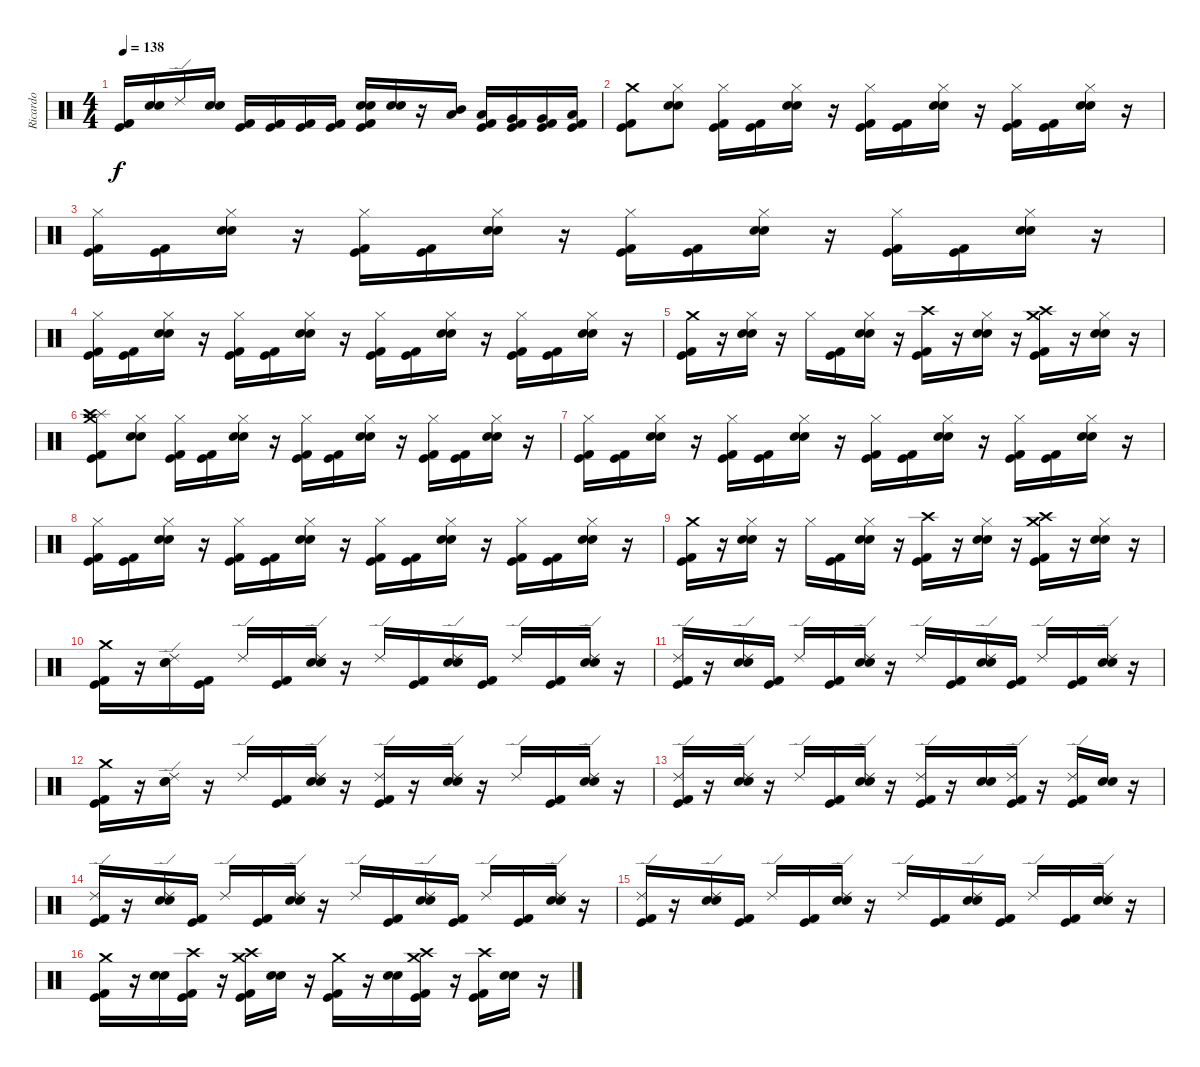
\track ("Ricardo" "Ricardo") {instrument percussion}
\staff {score}
\articulation defaults
\ts (4 4)
\tempo 138
\clef neutral
\ks c
("Kick (hit) 2" "Kick (hit)").16{dy f} ("Electric Snare (hit)" "Snare (hit) 2").16 "Ride (edge) 2".16 ("Snare (hit) 2" "Electric Snare (hit)").16 ("Kick (hit) 2" "Kick (hit)").16 ("Kick (hit) 2" "Kick (hit)").16 ("Kick (hit) 2" "Kick (hit)").16 ("Kick (hit) 2" "Kick (hit)").16 ("Electric Snare (hit)" "Snare (hit) 2" "Kick (hit) 2" "Kick (hit)").16 ("Electric Snare (hit)" "Snare (hit) 2").16 r.16 ("Mid Tom (hit)" "Low Tom (hit)").16 ("Low Tom (hit)" "Kick (hit) 2" "Kick (hit)").16 ("Very Low Tom (hit)" "Kick (hit) 2" "Kick (hit)").16 ("Very Low Tom (hit)" "Kick (hit) 2" "Kick (hit)").16 ("Low Floor Tom (hit)" "Kick (hit) 2" "Kick (hit)").16 |
("Crash medium (hit)" "Kick (hit) 2" "Kick (hit)").8 ("Hi-Hat (closed)" "Electric Snare (hit)" "Snare (hit) 2").8 ("Hi-Hat (closed)" "Kick (hit) 2" "Kick (hit)").16 ("Kick (hit) 2" "Kick (hit)").16 ("Hi-Hat (closed)" "Electric Snare (hit)" "Snare (hit) 2").16 r.16 ("Hi-Hat (closed)" "Kick (hit) 2" "Kick (hit)").16 ("Kick (hit) 2" "Kick (hit)").16 ("Hi-Hat (closed)" "Electric Snare (hit)" "Snare (hit) 2").16 r.16 ("Hi-Hat (closed)" "Kick (hit) 2" "Kick (hit)").16 ("Kick (hit) 2" "Kick (hit)").16 ("Hi-Hat (closed)" "Electric Snare (hit)" "Snare (hit) 2").16 r.16 |
("Hi-Hat (closed)" "Kick (hit) 2" "Kick (hit)").16 ("Kick (hit) 2" "Kick (hit)").16 ("Hi-Hat (closed)" "Electric Snare (hit)" "Snare (hit) 2").16 r.16 ("Hi-Hat (closed)" "Kick (hit) 2" "Kick (hit)").16 ("Kick (hit) 2" "Kick (hit)").16 ("Hi-Hat (closed)" "Electric Snare (hit)" "Snare (hit) 2").16 r.16 ("Hi-Hat (closed)" "Kick (hit) 2" "Kick (hit)").16 ("Kick (hit) 2" "Kick (hit)").16 ("Hi-Hat (closed)" "Electric Snare (hit)" "Snare (hit) 2").16 r.16 ("Hi-Hat (closed)" "Kick (hit) 2" "Kick (hit)").16 ("Kick (hit) 2" "Kick (hit)").16 ("Hi-Hat (closed)" "Electric Snare (hit)" "Snare (hit) 2").16 r.16 |
("Hi-Hat (closed)" "Kick (hit) 2" "Kick (hit)").16 ("Kick (hit) 2" "Kick (hit)").16 ("Hi-Hat (closed)" "Electric Snare (hit)" "Snare (hit) 2").16 r.16 ("Hi-Hat (closed)" "Kick (hit) 2" "Kick (hit)").16 ("Kick (hit) 2" "Kick (hit)").16 ("Hi-Hat (closed)" "Electric Snare (hit)" "Snare (hit) 2").16 r.16 ("Hi-Hat (closed)" "Kick (hit) 2" "Kick (hit)").16 ("Kick (hit) 2" "Kick (hit)").16 ("Hi-Hat (closed)" "Electric Snare (hit)" "Snare (hit) 2").16 r.16 ("Hi-Hat (closed)" "Kick (hit) 2" "Kick (hit)").16 ("Kick (hit) 2" "Kick (hit)").16 ("Hi-Hat (closed)" "Electric Snare (hit)" "Snare (hit) 2").16 r.16 |
("Crash medium (hit)" "Kick (hit) 2" "Kick (hit)").16 r.16 ("Hi-Hat (closed)" "Electric Snare (hit)" "Snare (hit) 2").16 r.16 "Hi-Hat (closed)".16 ("Kick (hit) 2" "Kick (hit)").16 ("Hi-Hat (closed)" "Electric Snare (hit)" "Snare (hit) 2").16 r.16 ("Crash high (hit)" "Kick (hit) 2" "Kick (hit)").16 r.16 ("Hi-Hat (closed)" "Electric Snare (hit)" "Snare (hit) 2").16 r.16 ("Crash medium (hit)" "Crash high (hit)" "Kick (hit) 2" "Kick (hit)").16 r.16 ("Hi-Hat (closed)" "Electric Snare (hit)" "Snare (hit) 2").16 r.16 |
("Splash (hit)" "Crash high (hit)" "Crash medium (hit)" "Kick (hit) 2" "Kick (hit)").8 ("Hi-Hat (closed)" "Electric Snare (hit)" "Snare (hit) 2").8 ("Hi-Hat (closed)" "Kick (hit) 2" "Kick (hit)").16 ("Kick (hit) 2" "Kick (hit)").16 ("Hi-Hat (closed)" "Electric Snare (hit)" "Snare (hit) 2").16 r.16 ("Hi-Hat (closed)" "Kick (hit) 2" "Kick (hit)").16 ("Kick (hit) 2" "Kick (hit)").16 ("Hi-Hat (closed)" "Electric Snare (hit)" "Snare (hit) 2").16 r.16 ("Hi-Hat (closed)" "Kick (hit) 2" "Kick (hit)").16 ("Kick (hit) 2" "Kick (hit)").16 ("Hi-Hat (closed)" "Electric Snare (hit)" "Snare (hit) 2").16 r.16 |
("Hi-Hat (closed)" "Kick (hit) 2" "Kick (hit)").16 ("Kick (hit) 2" "Kick (hit)").16 ("Hi-Hat (closed)" "Electric Snare (hit)" "Snare (hit) 2").16 r.16 ("Hi-Hat (closed)" "Kick (hit) 2" "Kick (hit)").16 ("Kick (hit) 2" "Kick (hit)").16 ("Hi-Hat (closed)" "Electric Snare (hit)" "Snare (hit) 2").16 r.16 ("Hi-Hat (closed)" "Kick (hit) 2" "Kick (hit)").16 ("Kick (hit) 2" "Kick (hit)").16 ("Hi-Hat (closed)" "Electric Snare (hit)" "Snare (hit) 2").16 r.16 ("Hi-Hat (closed)" "Kick (hit) 2" "Kick (hit)").16 ("Kick (hit) 2" "Kick (hit)").16 ("Hi-Hat (closed)" "Electric Snare (hit)" "Snare (hit) 2").16 r.16 |
("Hi-Hat (closed)" "Kick (hit) 2" "Kick (hit)").16 ("Kick (hit) 2" "Kick (hit)").16 ("Hi-Hat (closed)" "Electric Snare (hit)" "Snare (hit) 2").16 r.16 ("Hi-Hat (closed)" "Kick (hit) 2" "Kick (hit)").16 ("Kick (hit) 2" "Kick (hit)").16 ("Hi-Hat (closed)" "Electric Snare (hit)" "Snare (hit) 2").16 r.16 ("Hi-Hat (closed)" "Kick (hit) 2" "Kick (hit)").16 ("Kick (hit) 2" "Kick (hit)").16 ("Hi-Hat (closed)" "Electric Snare (hit)" "Snare (hit) 2").16 r.16 ("Hi-Hat (closed)" "Kick (hit) 2" "Kick (hit)").16 ("Kick (hit) 2" "Kick (hit)").16 ("Hi-Hat (closed)" "Electric Snare (hit)" "Snare (hit) 2").16 r.16 |
("Crash medium (hit)" "Kick (hit) 2" "Kick (hit)").16 r.16 ("Hi-Hat (closed)" "Electric Snare (hit)" "Snare (hit) 2").16 r.16 "Hi-Hat (closed)".16 ("Kick (hit) 2" "Kick (hit)").16 ("Hi-Hat (closed)" "Electric Snare (hit)" "Snare (hit) 2").16 r.16 ("Crash high (hit)" "Kick (hit) 2" "Kick (hit)").16 r.16 ("Hi-Hat (closed)" "Electric Snare (hit)" "Snare (hit) 2").16 r.16 ("Crash high (hit)" "Kick (hit) 2" "Kick (hit)" "Crash medium (hit)").16 r.16 ("Hi-Hat (closed)" "Electric Snare (hit)" "Snare (hit) 2").16 r.16 |
("Crash medium (hit)" "Kick (hit) 2" "Kick (hit)").16 r.16 ("Ride (edge) 2" "Electric Snare (hit)" "Snare (hit) 2").16 ("Kick (hit) 2" "Kick (hit)").16 "Ride (edge) 2".16 ("Kick (hit) 2" "Kick (hit)").16 ("Ride (edge) 2" "Electric Snare (hit)" "Snare (hit) 2").16 r.16 "Ride (edge) 2".16 ("Kick (hit) 2" "Kick (hit)").16 ("Snare (hit) 2" "Electric Snare (hit)" "Ride (edge) 2").16 ("Kick (hit) 2" "Kick (hit)").16 "Ride (edge) 2".16 ("Kick (hit) 2" "Kick (hit)").16 ("Ride (edge) 2" "Electric Snare (hit)" "Snare (hit) 2").16 r.16 |
("Ride (edge) 2" "Kick (hit) 2" "Kick (hit)").16 r.16 ("Electric Snare (hit)" "Snare (hit) 2" "Ride (edge) 2").16 ("Kick (hit) 2" "Kick (hit)").16 "Ride (edge) 2".16 ("Kick (hit) 2" "Kick (hit)").16 ("Electric Snare (hit)" "Snare (hit) 2" "Ride (edge) 2").16 r.16 "Ride (edge) 2".16 ("Kick (hit) 2" "Kick (hit)").16 ("Snare (hit) 2" "Electric Snare (hit)" "Ride (edge) 2").16 ("Kick (hit)" "Kick (hit) 2").16 "Ride (edge) 2".16 ("Kick (hit) 2" "Kick (hit)").16 ("Electric Snare (hit)" "Snare (hit) 2" "Ride (edge) 2").16 r.16 |
("Crash medium (hit)" "Kick (hit) 2" "Kick (hit)").16 r.16 ("Electric Snare (hit)" "Snare (hit) 2" "Ride (edge) 2").16 r.16 "Ride (edge) 2".16 ("Kick (hit) 2" "Kick (hit)").16 ("Electric Snare (hit)" "Snare (hit) 2" "Ride (edge) 2").16 r.16 ("Ride (edge) 2" "Kick (hit) 2" "Kick (hit)").16 r.16 ("Electric Snare (hit)" "Snare (hit) 2" "Ride (edge) 2").16 r.16 "Ride (edge) 2".16 ("Kick (hit) 2" "Kick (hit)").16 ("Electric Snare (hit)" "Snare (hit) 2" "Ride (edge) 2").16 r.16 |
("Kick (hit) 2" "Ride (edge) 2" "Kick (hit)").16 r.16 ("Electric Snare (hit)" "Snare (hit) 2" "Ride (edge) 2").16 r.16 "Ride (edge) 2".16 ("Kick (hit) 2" "Kick (hit)").16 ("Electric Snare (hit)" "Snare (hit) 2" "Ride (edge) 2").16 r.16 ("Ride (edge) 2" "Kick (hit) 2" "Kick (hit)").16 r.16 ("Electric Snare (hit)" "Snare (hit) 2").16 ("Ride (edge) 2" "Kick (hit) 2" "Kick (hit)").16 r.16 ("Ride (edge) 2" "Kick (hit) 2" "Kick (hit)").16 ("Electric Snare (hit)" "Snare (hit) 2").16 r.16 |
("Ride (edge) 2" "Kick (hit) 2" "Kick (hit)").16 r.16 ("Electric Snare (hit)" "Snare (hit) 2" "Ride (edge) 2").16 ("Kick (hit) 2" "Kick (hit)").16 "Ride (edge) 2".16 ("Kick (hit) 2" "Kick (hit)").16 ("Electric Snare (hit)" "Snare (hit) 2" "Ride (edge) 2").16 r.16 "Ride (edge) 2".16 ("Kick (hit) 2" "Kick (hit)").16 ("Electric Snare (hit)" "Snare (hit) 2" "Ride (edge) 2").16 ("Kick (hit) 2" "Kick (hit)").16 "Ride (edge) 2".16 ("Kick (hit) 2" "Kick (hit)").16 ("Electric Snare (hit)" "Snare (hit) 2" "Ride (edge) 2").16 r.16 |
("Ride (edge) 2" "Kick (hit) 2" "Kick (hit)").16 r.16 ("Electric Snare (hit)" "Snare (hit) 2" "Ride (edge) 2").16 ("Kick (hit) 2" "Kick (hit)").16 "Ride (edge) 2".16 ("Kick (hit) 2" "Kick (hit)").16 ("Electric Snare (hit)" "Snare (hit) 2" "Ride (edge) 2").16 r.16 "Ride (edge) 2".16 ("Kick (hit) 2" "Kick (hit)").16 ("Electric Snare (hit)" "Snare (hit) 2" "Ride (edge) 2").16 ("Kick (hit) 2" "Kick (hit)").16 "Ride (edge) 2".16 ("Kick (hit) 2" "Kick (hit)").16 ("Electric Snare (hit)" "Snare (hit) 2" "Ride (edge) 2").16 r.16 |
("Crash medium (hit)" "Kick (hit) 2" "Kick (hit)").16 r.16 ("Electric Snare (hit)" "Snare (hit) 2").16 ("Crash high (hit)" "Kick (hit)" "Kick (hit) 2").16 r.16 ("Crash high (hit)" "Crash medium (hit)" "Kick (hit) 2" "Kick (hit)").16 ("Electric Snare (hit)" "Snare (hit) 2").16 r.16 ("Crash medium (hit)" "Kick (hit) 2" "Kick (hit)").16 r.16 ("Electric Snare (hit)" "Snare (hit) 2").16 ("Crash medium (hit)" "Crash high (hit)" "Kick (hit) 2" "Kick (hit)").16 r.16 ("Crash high (hit)" "Kick (hit) 2" "Kick (hit)").16 ("Electric Snare (hit)" "Snare (hit) 2").16 r.16
